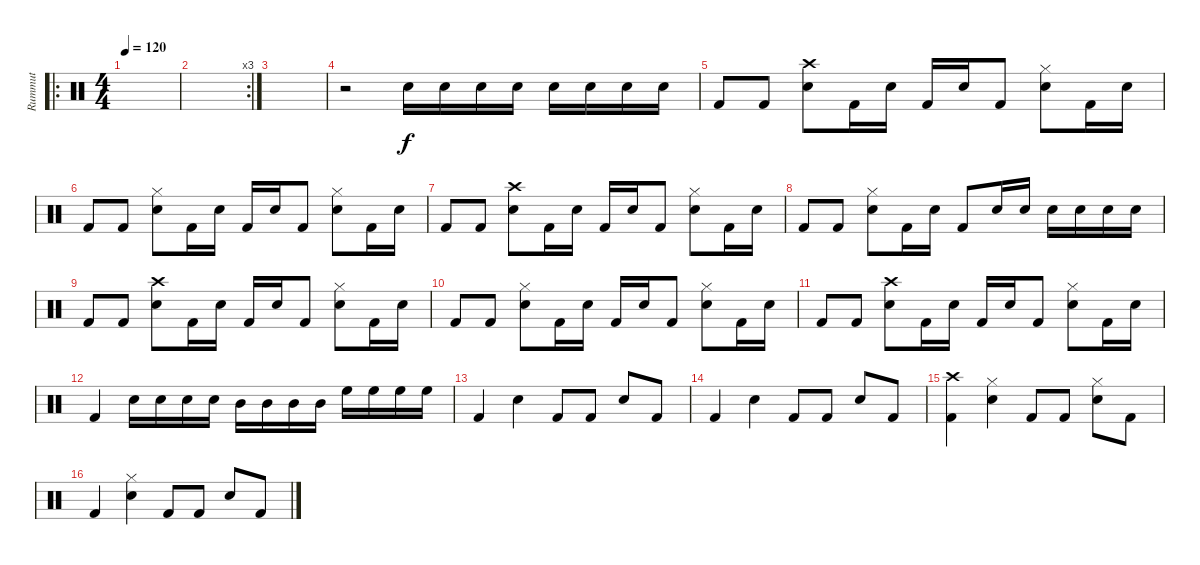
\track ("Rummut" "Rummut") {instrument percussion}
\staff {score}
\articulation defaults
\ro
\ts (4 4)
\tempo 120
\clef neutral
\ks c
|
\rc 3
|
|
r.2 "Snare (hit) 2".16 "Snare (hit) 2".16 "Snare (hit) 2".16 "Snare (hit) 2".16 "Snare (hit) 2".16 "Snare (hit) 2".16 "Snare (hit) 2".16 "Snare (hit) 2".16 |
"Kick (hit) 2".8 "Kick (hit) 2".8 ("Crash high (hit)" "Snare (hit) 2").8 "Kick (hit) 2".16 "Snare (hit) 2".16 "Kick (hit) 2".16 "Snare (hit) 2".16 "Kick (hit) 2".8 ("Hi-Hat (closed)" "Snare (hit) 2").8 "Kick (hit) 2".16 "Snare (hit) 2".16 |
"Kick (hit) 2".8 "Kick (hit) 2".8 ("Hi-Hat (closed)" "Snare (hit) 2").8 "Kick (hit) 2".16 "Snare (hit) 2".16 "Kick (hit) 2".16 "Snare (hit) 2".16 "Kick (hit) 2".8 ("Hi-Hat (closed)" "Snare (hit) 2").8 "Kick (hit) 2".16 "Snare (hit) 2".16 |
"Kick (hit) 2".8 "Kick (hit) 2".8 ("Crash high (hit)" "Snare (hit) 2").8 "Kick (hit) 2".16 "Snare (hit) 2".16 "Kick (hit) 2".16 "Snare (hit) 2".16 "Kick (hit) 2".8 ("Hi-Hat (closed)" "Snare (hit) 2").8 "Kick (hit) 2".16 "Snare (hit) 2".16 |
"Kick (hit) 2".8 "Kick (hit) 2".8 ("Hi-Hat (closed)" "Snare (hit) 2").8 "Kick (hit) 2".16 "Snare (hit) 2".16 "Kick (hit) 2".8 "Snare (hit) 2".16 "Snare (hit) 2".16 "Snare (hit) 2".16 "Snare (hit) 2".16 "Snare (hit) 2".16 "Snare (hit) 2".16 |
"Kick (hit) 2".8 "Kick (hit) 2".8 ("Crash high (hit)" "Snare (hit) 2").8 "Kick (hit) 2".16 "Snare (hit) 2".16 "Kick (hit) 2".16 "Snare (hit) 2".16 "Kick (hit) 2".8 ("Hi-Hat (closed)" "Snare (hit) 2").8 "Kick (hit) 2".16 "Snare (hit) 2".16 |
"Kick (hit) 2".8 "Kick (hit) 2".8 ("Hi-Hat (closed)" "Snare (hit) 2").8 "Kick (hit) 2".16 "Snare (hit) 2".16 "Kick (hit) 2".16 "Snare (hit) 2".16 "Kick (hit) 2".8 ("Hi-Hat (closed)" "Snare (hit) 2").8 "Kick (hit) 2".16 "Snare (hit) 2".16 |
"Kick (hit) 2".8 "Kick (hit) 2".8 ("Crash high (hit)" "Snare (hit) 2").8 "Kick (hit) 2".16 "Snare (hit) 2".16 "Kick (hit) 2".16 "Snare (hit) 2".16 "Kick (hit) 2".8 ("Hi-Hat (closed)" "Snare (hit) 2").8 "Kick (hit) 2".16 "Snare (hit) 2".16 |
"Kick (hit) 2".4 "Snare (hit) 2".16 "Snare (hit) 2".16 "Snare (hit) 2".16 "Snare (hit) 2".16 "Mid Tom (hit)".16 "Mid Tom (hit)".16 "Mid Tom (hit)".16 "Mid Tom (hit)".16 "High Floor Tom (hit)".16 "High Floor Tom (hit)".16 "High Floor Tom (hit)".16 "High Floor Tom (hit)".16 |
"Kick (hit) 2".4 "Snare (hit) 2".4 "Kick (hit) 2".8 "Kick (hit) 2".8 "Snare (hit) 2".8 "Kick (hit) 2".8 |
"Kick (hit) 2".4 "Snare (hit) 2".4 "Kick (hit) 2".8 "Kick (hit) 2".8 "Snare (hit) 2".8 "Kick (hit) 2".8 |
("Crash high (hit)" "Kick (hit) 2").4 ("Hi-Hat (closed)" "Snare (hit) 2").4 "Kick (hit) 2".8 "Kick (hit) 2".8 ("Hi-Hat (closed)" "Snare (hit) 2").8 "Kick (hit) 2".8 |
"Kick (hit) 2".4 ("Hi-Hat (closed)" "Snare (hit) 2").4 "Kick (hit) 2".8 "Kick (hit) 2".8 "Snare (hit) 2".8 "Kick (hit) 2".8
